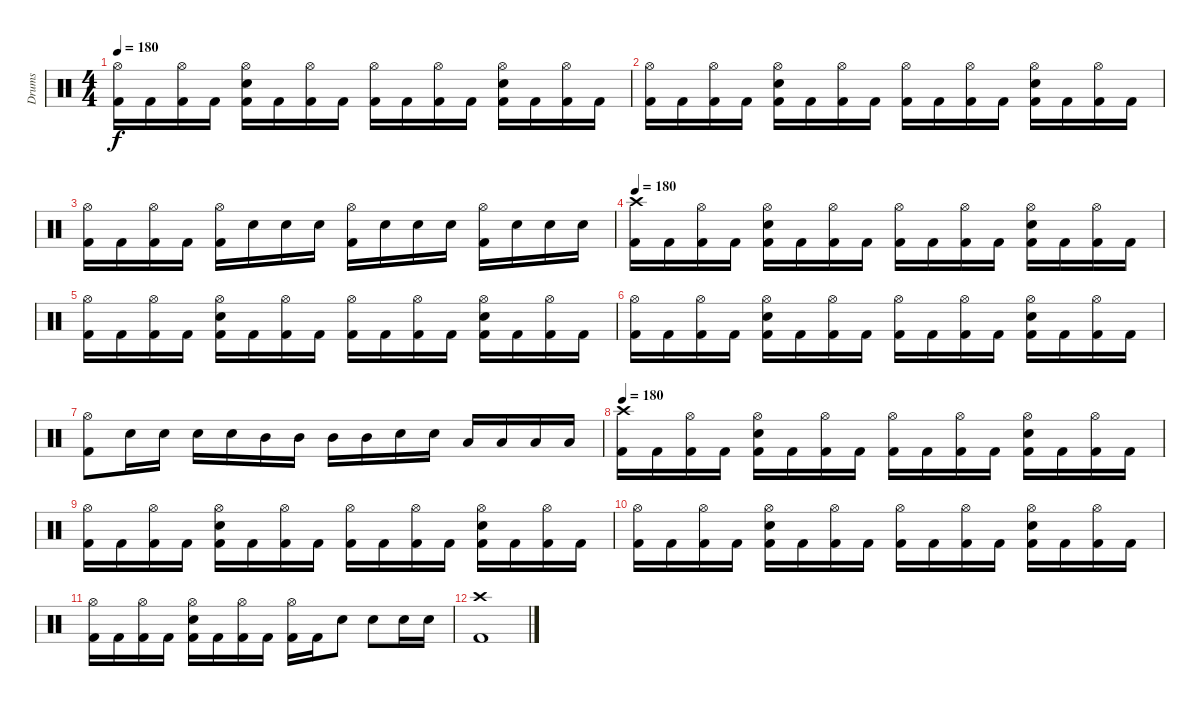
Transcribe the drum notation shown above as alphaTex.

\track ("Drums" "Drums") {instrument percussion}
\staff {score}
\articulation defaults
\ts (4 4)
\tempo 180
\clef neutral
\ks c
("Hi-Hat (open)" "Kick (hit) 2").16{dy f} "Kick (hit) 2".16 ("Hi-Hat (open)" "Kick (hit) 2").16 "Kick (hit) 2".16 ("Hi-Hat (open)" "Electric Snare (hit)" "Kick (hit) 2").16 "Kick (hit) 2".16 ("Hi-Hat (open)" "Kick (hit) 2").16 "Kick (hit) 2".16 ("Hi-Hat (open)" "Kick (hit) 2").16 "Kick (hit) 2".16 ("Hi-Hat (open)" "Kick (hit) 2").16 "Kick (hit) 2".16 ("Hi-Hat (open)" "Electric Snare (hit)" "Kick (hit) 2").16 "Kick (hit) 2".16 ("Hi-Hat (open)" "Kick (hit) 2").16 "Kick (hit) 2".16 |
("Hi-Hat (open)" "Kick (hit) 2").16 "Kick (hit) 2".16 ("Hi-Hat (open)" "Kick (hit) 2").16 "Kick (hit) 2".16 ("Hi-Hat (open)" "Electric Snare (hit)" "Kick (hit) 2").16 "Kick (hit) 2".16 ("Hi-Hat (open)" "Kick (hit) 2").16 "Kick (hit) 2".16 ("Hi-Hat (open)" "Kick (hit) 2").16 "Kick (hit) 2".16 ("Hi-Hat (open)" "Kick (hit) 2").16 "Kick (hit) 2".16 ("Hi-Hat (open)" "Electric Snare (hit)" "Kick (hit) 2").16 "Kick (hit) 2".16 ("Hi-Hat (open)" "Kick (hit) 2").16 "Kick (hit) 2".16 |
("Hi-Hat (open)" "Kick (hit) 2").16 "Kick (hit) 2".16 ("Hi-Hat (open)" "Kick (hit) 2").16 "Kick (hit) 2".16 ("Hi-Hat (open)" "Kick (hit) 2").16 "Electric Snare (hit)".16 "Electric Snare (hit)".16 "Electric Snare (hit)".16 ("Hi-Hat (open)" "Kick (hit) 2").16 "Electric Snare (hit)".16 "Electric Snare (hit)".16 "Electric Snare (hit)".16 ("Hi-Hat (open)" "Kick (hit) 2").16 "Electric Snare (hit)".16 "Electric Snare (hit)".16 "Electric Snare (hit)".16 |
\tempo 180
("Crash high (hit)" "Kick (hit) 2").16 "Kick (hit) 2".16 ("Hi-Hat (open)" "Kick (hit) 2").16 "Kick (hit) 2".16 ("Hi-Hat (open)" "Electric Snare (hit)" "Kick (hit) 2").16 "Kick (hit) 2".16 ("Hi-Hat (open)" "Kick (hit) 2").16 "Kick (hit) 2".16 ("Hi-Hat (open)" "Kick (hit) 2").16 "Kick (hit) 2".16 ("Hi-Hat (open)" "Kick (hit) 2").16 "Kick (hit) 2".16 ("Hi-Hat (open)" "Electric Snare (hit)" "Kick (hit) 2").16 "Kick (hit) 2".16 ("Hi-Hat (open)" "Kick (hit) 2").16 "Kick (hit) 2".16 |
("Hi-Hat (open)" "Kick (hit) 2").16 "Kick (hit) 2".16 ("Hi-Hat (open)" "Kick (hit) 2").16 "Kick (hit) 2".16 ("Hi-Hat (open)" "Electric Snare (hit)" "Kick (hit) 2").16 "Kick (hit) 2".16 ("Hi-Hat (open)" "Kick (hit) 2").16 "Kick (hit) 2".16 ("Hi-Hat (open)" "Kick (hit) 2").16 "Kick (hit) 2".16 ("Hi-Hat (open)" "Kick (hit) 2").16 "Kick (hit) 2".16 ("Hi-Hat (open)" "Electric Snare (hit)" "Kick (hit) 2").16 "Kick (hit) 2".16 ("Hi-Hat (open)" "Kick (hit) 2").16 "Kick (hit) 2".16 |
("Hi-Hat (open)" "Kick (hit) 2").16 "Kick (hit) 2".16 ("Hi-Hat (open)" "Kick (hit) 2").16 "Kick (hit) 2".16 ("Hi-Hat (open)" "Electric Snare (hit)" "Kick (hit) 2").16 "Kick (hit) 2".16 ("Hi-Hat (open)" "Kick (hit) 2").16 "Kick (hit) 2".16 ("Hi-Hat (open)" "Kick (hit) 2").16 "Kick (hit) 2".16 ("Hi-Hat (open)" "Kick (hit) 2").16 "Kick (hit) 2".16 ("Hi-Hat (open)" "Electric Snare (hit)" "Kick (hit) 2").16 "Kick (hit) 2".16 ("Hi-Hat (open)" "Kick (hit) 2").16 "Kick (hit) 2".16 |
("Hi-Hat (open)" "Kick (hit) 2").8 "Electric Snare (hit)".16 "Electric Snare (hit)".16 "Electric Snare (hit)".16 "Electric Snare (hit)".16 "Mid Tom (hit)".16 "Mid Tom (hit)".16 "Mid Tom (hit)".16 "Mid Tom (hit)".16 "Electric Snare (hit)".16 "Electric Snare (hit)".16 "Low Tom (hit)".16 "Low Tom (hit)".16 "Low Tom (hit)".16 "Low Tom (hit)".16 |
\tempo 180
("Crash high (hit)" "Kick (hit) 2").16 "Kick (hit) 2".16 ("Hi-Hat (open)" "Kick (hit) 2").16 "Kick (hit) 2".16 ("Hi-Hat (open)" "Electric Snare (hit)" "Kick (hit) 2").16 "Kick (hit) 2".16 ("Hi-Hat (open)" "Kick (hit) 2").16 "Kick (hit) 2".16 ("Hi-Hat (open)" "Kick (hit) 2").16 "Kick (hit) 2".16 ("Hi-Hat (open)" "Kick (hit) 2").16 "Kick (hit) 2".16 ("Hi-Hat (open)" "Electric Snare (hit)" "Kick (hit) 2").16 "Kick (hit) 2".16 ("Hi-Hat (open)" "Kick (hit) 2").16 "Kick (hit) 2".16 |
("Hi-Hat (open)" "Kick (hit) 2").16 "Kick (hit) 2".16 ("Hi-Hat (open)" "Kick (hit) 2").16 "Kick (hit) 2".16 ("Hi-Hat (open)" "Electric Snare (hit)" "Kick (hit) 2").16 "Kick (hit) 2".16 ("Hi-Hat (open)" "Kick (hit) 2").16 "Kick (hit) 2".16 ("Hi-Hat (open)" "Kick (hit) 2").16 "Kick (hit) 2".16 ("Hi-Hat (open)" "Kick (hit) 2").16 "Kick (hit) 2".16 ("Hi-Hat (open)" "Electric Snare (hit)" "Kick (hit) 2").16 "Kick (hit) 2".16 ("Hi-Hat (open)" "Kick (hit) 2").16 "Kick (hit) 2".16 |
("Hi-Hat (open)" "Kick (hit) 2").16 "Kick (hit) 2".16 ("Hi-Hat (open)" "Kick (hit) 2").16 "Kick (hit) 2".16 ("Hi-Hat (open)" "Electric Snare (hit)" "Kick (hit) 2").16 "Kick (hit) 2".16 ("Hi-Hat (open)" "Kick (hit) 2").16 "Kick (hit) 2".16 ("Hi-Hat (open)" "Kick (hit) 2").16 "Kick (hit) 2".16 ("Hi-Hat (open)" "Kick (hit) 2").16 "Kick (hit) 2".16 ("Hi-Hat (open)" "Electric Snare (hit)" "Kick (hit) 2").16 "Kick (hit) 2".16 ("Hi-Hat (open)" "Kick (hit) 2").16 "Kick (hit) 2".16 |
("Hi-Hat (open)" "Kick (hit) 2").16 "Kick (hit) 2".16 ("Hi-Hat (open)" "Kick (hit) 2").16 "Kick (hit) 2".16 ("Hi-Hat (open)" "Electric Snare (hit)" "Kick (hit) 2").16 "Kick (hit) 2".16 ("Hi-Hat (open)" "Kick (hit) 2").16 "Kick (hit) 2".16 ("Hi-Hat (open)" "Kick (hit) 2").16 "Kick (hit) 2".16 "Electric Snare (hit)".8 "Electric Snare (hit)".8 "Electric Snare (hit)".16 "Electric Snare (hit)".16 |
("Crash high (hit)" "Kick (hit) 2").1
